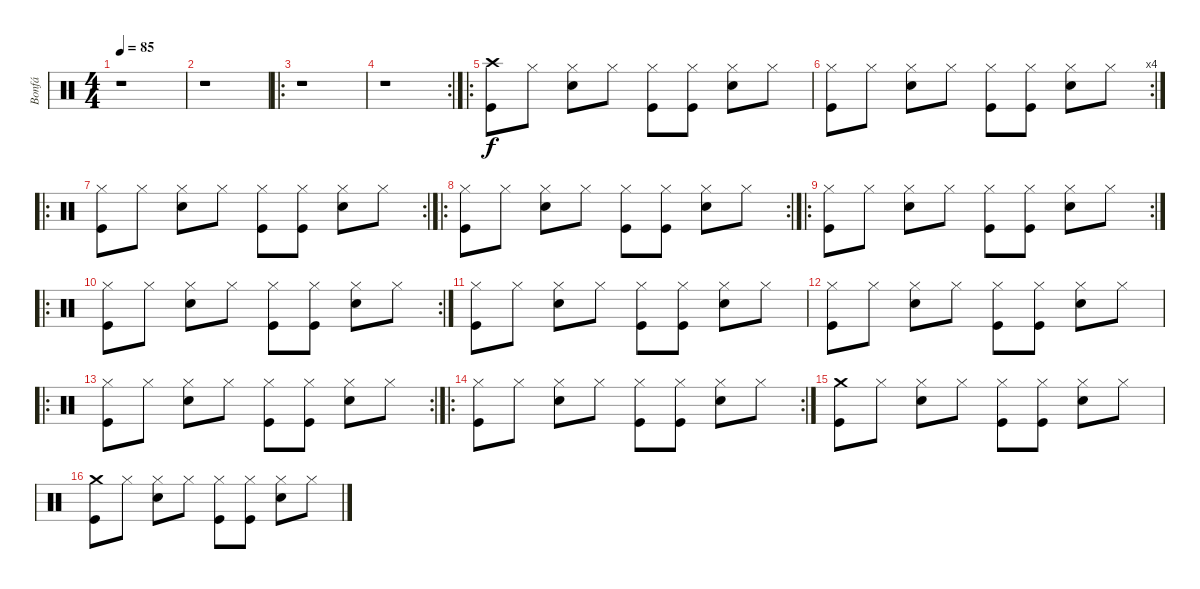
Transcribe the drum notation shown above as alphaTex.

\track ("Bonfá" "Bonfá") {instrument percussion}
\staff {score}
\articulation defaults
\ts (4 4)
\tempo 85
\clef neutral
\ks c
r.1{dy f} |
r.1 |
\ro
r.1 |
\rc 2
r.1 |
\ro
("Crash high (hit)" "Kick (hit)").8 "Hi-Hat (closed)".8 ("Electric Snare (hit)" "Hi-Hat (closed)").8 "Hi-Hat (closed)".8 ("Kick (hit)" "Hi-Hat (closed)").8 ("Kick (hit)" "Hi-Hat (closed)").8 ("Electric Snare (hit)" "Hi-Hat (closed)").8 "Hi-Hat (closed)".8 |
\rc 4
("Hi-Hat (closed)" "Kick (hit)").8 "Hi-Hat (closed)".8 ("Electric Snare (hit)" "Hi-Hat (closed)").8 "Hi-Hat (closed)".8 ("Kick (hit)" "Hi-Hat (closed)").8 ("Kick (hit)" "Hi-Hat (closed)").8 ("Electric Snare (hit)" "Hi-Hat (closed)").8 "Hi-Hat (closed)".8 |
\ro
\rc 2
("Hi-Hat (closed)" "Kick (hit)").8 "Hi-Hat (closed)".8 ("Electric Snare (hit)" "Hi-Hat (closed)").8 "Hi-Hat (closed)".8 ("Kick (hit)" "Hi-Hat (closed)").8 ("Kick (hit)" "Hi-Hat (closed)").8 ("Electric Snare (hit)" "Hi-Hat (closed)").8 "Hi-Hat (closed)".8 |
\ro
\rc 2
("Hi-Hat (closed)" "Kick (hit)").8 "Hi-Hat (closed)".8 ("Electric Snare (hit)" "Hi-Hat (closed)").8 "Hi-Hat (closed)".8 ("Kick (hit)" "Hi-Hat (closed)").8 ("Kick (hit)" "Hi-Hat (closed)").8 ("Electric Snare (hit)" "Hi-Hat (closed)").8 "Hi-Hat (closed)".8 |
\ro
\rc 2
("Hi-Hat (closed)" "Kick (hit)").8 "Hi-Hat (closed)".8 ("Electric Snare (hit)" "Hi-Hat (closed)").8 "Hi-Hat (closed)".8 ("Kick (hit)" "Hi-Hat (closed)").8 ("Kick (hit)" "Hi-Hat (closed)").8 ("Electric Snare (hit)" "Hi-Hat (closed)").8 "Hi-Hat (closed)".8 |
\ro
\rc 2
("Hi-Hat (closed)" "Kick (hit)").8 "Hi-Hat (closed)".8 ("Electric Snare (hit)" "Hi-Hat (closed)").8 "Hi-Hat (closed)".8 ("Kick (hit)" "Hi-Hat (closed)").8 ("Kick (hit)" "Hi-Hat (closed)").8 ("Electric Snare (hit)" "Hi-Hat (closed)").8 "Hi-Hat (closed)".8 |
("Hi-Hat (closed)" "Kick (hit)").8 "Hi-Hat (closed)".8 ("Electric Snare (hit)" "Hi-Hat (closed)").8 "Hi-Hat (closed)".8 ("Kick (hit)" "Hi-Hat (closed)").8 ("Kick (hit)" "Hi-Hat (closed)").8 ("Electric Snare (hit)" "Hi-Hat (closed)").8 "Hi-Hat (closed)".8 |
("Hi-Hat (closed)" "Kick (hit)").8 "Hi-Hat (closed)".8 ("Electric Snare (hit)" "Hi-Hat (closed)").8 "Hi-Hat (closed)".8 ("Kick (hit)" "Hi-Hat (closed)").8 ("Kick (hit)" "Hi-Hat (closed)").8 ("Electric Snare (hit)" "Hi-Hat (closed)").8 "Hi-Hat (closed)".8 |
\ro
\rc 2
("Hi-Hat (closed)" "Kick (hit)").8 "Hi-Hat (closed)".8 ("Electric Snare (hit)" "Hi-Hat (closed)").8 "Hi-Hat (closed)".8 ("Kick (hit)" "Hi-Hat (closed)").8 ("Kick (hit)" "Hi-Hat (closed)").8 ("Electric Snare (hit)" "Hi-Hat (closed)").8 "Hi-Hat (closed)".8 |
\ro
\rc 2
("Hi-Hat (closed)" "Kick (hit)").8 "Hi-Hat (closed)".8 ("Electric Snare (hit)" "Hi-Hat (closed)").8 "Hi-Hat (closed)".8 ("Kick (hit)" "Hi-Hat (closed)").8 ("Kick (hit)" "Hi-Hat (closed)").8 ("Electric Snare (hit)" "Hi-Hat (closed)").8 "Hi-Hat (closed)".8 |
("Crash medium (hit)" "Kick (hit)").8 "Hi-Hat (closed)".8 ("Electric Snare (hit)" "Hi-Hat (closed)").8 "Hi-Hat (closed)".8 ("Kick (hit)" "Hi-Hat (closed)").8 ("Kick (hit)" "Hi-Hat (closed)").8 ("Electric Snare (hit)" "Hi-Hat (closed)").8 "Hi-Hat (closed)".8 |
("Crash medium (hit)" "Kick (hit)").8 "Hi-Hat (closed)".8 ("Electric Snare (hit)" "Hi-Hat (closed)").8 "Hi-Hat (closed)".8 ("Kick (hit)" "Hi-Hat (closed)").8 ("Kick (hit)" "Hi-Hat (closed)").8 ("Electric Snare (hit)" "Hi-Hat (closed)").8 "Hi-Hat (closed)".8
